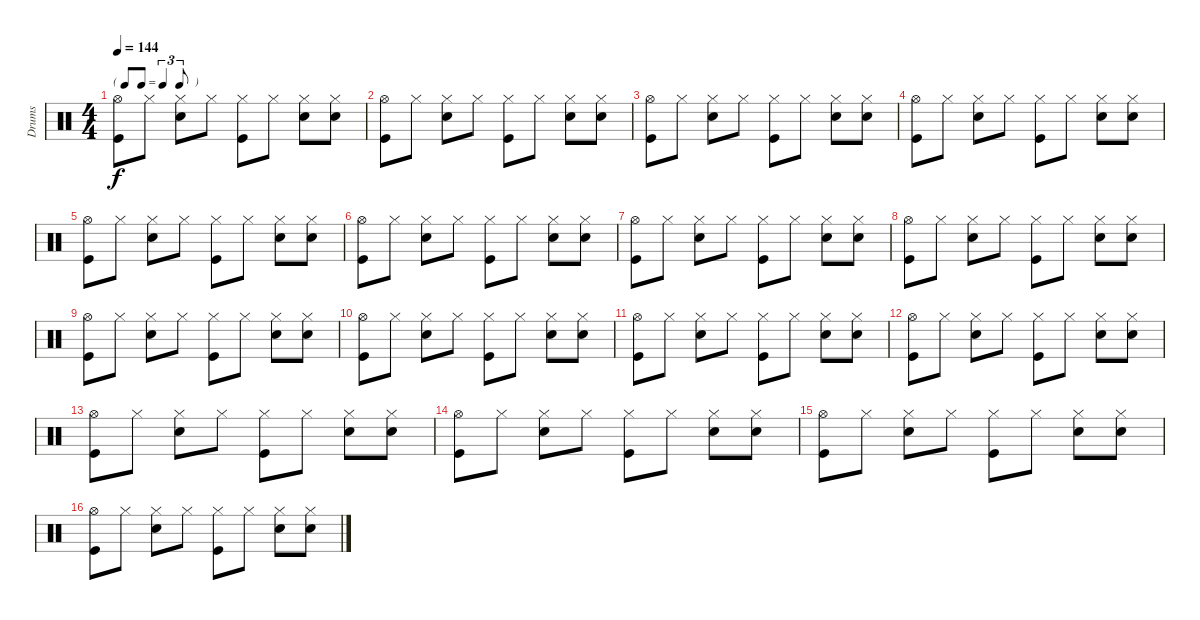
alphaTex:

\track ("Drums" "Drums") {instrument percussion}
\staff {score}
\articulation defaults
\ts (4 4)
\tf triplet8th
\tempo 144
\clef neutral
\ks c
("Kick (hit)" "Hi-Hat (open)").8{dy f} "Hi-Hat (closed)".8 ("Snare (hit) 2" "Hi-Hat (closed)").8 "Hi-Hat (closed)".8 ("Kick (hit)" "Hi-Hat (closed)").8 "Hi-Hat (closed)".8 ("Snare (hit) 2" "Hi-Hat (closed)").8 ("Snare (hit) 2" "Hi-Hat (closed)").8 |
("Kick (hit)" "Hi-Hat (open)").8 "Hi-Hat (closed)".8 ("Snare (hit) 2" "Hi-Hat (closed)").8 "Hi-Hat (closed)".8 ("Kick (hit)" "Hi-Hat (closed)").8 "Hi-Hat (closed)".8 ("Snare (hit) 2" "Hi-Hat (closed)").8 ("Snare (hit) 2" "Hi-Hat (closed)").8 |
("Kick (hit)" "Hi-Hat (open)").8 "Hi-Hat (closed)".8 ("Snare (hit) 2" "Hi-Hat (closed)").8 "Hi-Hat (closed)".8 ("Kick (hit)" "Hi-Hat (closed)").8 "Hi-Hat (closed)".8 ("Snare (hit) 2" "Hi-Hat (closed)").8 ("Snare (hit) 2" "Hi-Hat (closed)").8 |
("Kick (hit)" "Hi-Hat (open)").8 "Hi-Hat (closed)".8 ("Snare (hit) 2" "Hi-Hat (closed)").8 "Hi-Hat (closed)".8 ("Kick (hit)" "Hi-Hat (closed)").8 "Hi-Hat (closed)".8 ("Snare (hit) 2" "Hi-Hat (closed)").8 ("Snare (hit) 2" "Hi-Hat (closed)").8 |
("Kick (hit)" "Hi-Hat (open)").8 "Hi-Hat (closed)".8 ("Snare (hit) 2" "Hi-Hat (closed)").8 "Hi-Hat (closed)".8 ("Kick (hit)" "Hi-Hat (closed)").8 "Hi-Hat (closed)".8 ("Snare (hit) 2" "Hi-Hat (closed)").8 ("Snare (hit) 2" "Hi-Hat (closed)").8 |
("Kick (hit)" "Hi-Hat (open)").8 "Hi-Hat (closed)".8 ("Snare (hit) 2" "Hi-Hat (closed)").8 "Hi-Hat (closed)".8 ("Kick (hit)" "Hi-Hat (closed)").8 "Hi-Hat (closed)".8 ("Snare (hit) 2" "Hi-Hat (closed)").8 ("Snare (hit) 2" "Hi-Hat (closed)").8 |
("Kick (hit)" "Hi-Hat (open)").8 "Hi-Hat (closed)".8 ("Snare (hit) 2" "Hi-Hat (closed)").8 "Hi-Hat (closed)".8 ("Kick (hit)" "Hi-Hat (closed)").8 "Hi-Hat (closed)".8 ("Snare (hit) 2" "Hi-Hat (closed)").8 ("Snare (hit) 2" "Hi-Hat (closed)").8 |
("Kick (hit)" "Hi-Hat (open)").8 "Hi-Hat (closed)".8 ("Snare (hit) 2" "Hi-Hat (closed)").8 "Hi-Hat (closed)".8 ("Kick (hit)" "Hi-Hat (closed)").8 "Hi-Hat (closed)".8 ("Snare (hit) 2" "Hi-Hat (closed)").8 ("Snare (hit) 2" "Hi-Hat (closed)").8 |
("Kick (hit)" "Hi-Hat (open)").8 "Hi-Hat (closed)".8 ("Snare (hit) 2" "Hi-Hat (closed)").8 "Hi-Hat (closed)".8 ("Kick (hit)" "Hi-Hat (closed)").8 "Hi-Hat (closed)".8 ("Snare (hit) 2" "Hi-Hat (closed)").8 ("Snare (hit) 2" "Hi-Hat (closed)").8 |
("Kick (hit)" "Hi-Hat (open)").8 "Hi-Hat (closed)".8 ("Snare (hit) 2" "Hi-Hat (closed)").8 "Hi-Hat (closed)".8 ("Kick (hit)" "Hi-Hat (closed)").8 "Hi-Hat (closed)".8 ("Snare (hit) 2" "Hi-Hat (closed)").8 ("Snare (hit) 2" "Hi-Hat (closed)").8 |
("Kick (hit)" "Hi-Hat (open)").8 "Hi-Hat (closed)".8 ("Snare (hit) 2" "Hi-Hat (closed)").8 "Hi-Hat (closed)".8 ("Kick (hit)" "Hi-Hat (closed)").8 "Hi-Hat (closed)".8 ("Snare (hit) 2" "Hi-Hat (closed)").8 ("Snare (hit) 2" "Hi-Hat (closed)").8 |
("Kick (hit)" "Hi-Hat (open)").8 "Hi-Hat (closed)".8 ("Snare (hit) 2" "Hi-Hat (closed)").8 "Hi-Hat (closed)".8 ("Kick (hit)" "Hi-Hat (closed)").8 "Hi-Hat (closed)".8 ("Snare (hit) 2" "Hi-Hat (closed)").8 ("Snare (hit) 2" "Hi-Hat (closed)").8 |
("Kick (hit)" "Hi-Hat (open)").8 "Hi-Hat (closed)".8 ("Snare (hit) 2" "Hi-Hat (closed)").8 "Hi-Hat (closed)".8 ("Kick (hit)" "Hi-Hat (closed)").8 "Hi-Hat (closed)".8 ("Snare (hit) 2" "Hi-Hat (closed)").8 ("Snare (hit) 2" "Hi-Hat (closed)").8 |
("Kick (hit)" "Hi-Hat (open)").8 "Hi-Hat (closed)".8 ("Snare (hit) 2" "Hi-Hat (closed)").8 "Hi-Hat (closed)".8 ("Kick (hit)" "Hi-Hat (closed)").8 "Hi-Hat (closed)".8 ("Snare (hit) 2" "Hi-Hat (closed)").8 ("Snare (hit) 2" "Hi-Hat (closed)").8 |
("Kick (hit)" "Hi-Hat (open)").8 "Hi-Hat (closed)".8 ("Snare (hit) 2" "Hi-Hat (closed)").8 "Hi-Hat (closed)".8 ("Kick (hit)" "Hi-Hat (closed)").8 "Hi-Hat (closed)".8 ("Snare (hit) 2" "Hi-Hat (closed)").8 ("Snare (hit) 2" "Hi-Hat (closed)").8 |
("Kick (hit)" "Hi-Hat (open)").8 "Hi-Hat (closed)".8 ("Snare (hit) 2" "Hi-Hat (closed)").8 "Hi-Hat (closed)".8 ("Kick (hit)" "Hi-Hat (closed)").8 "Hi-Hat (closed)".8 ("Snare (hit) 2" "Hi-Hat (closed)").8 ("Snare (hit) 2" "Hi-Hat (closed)").8
